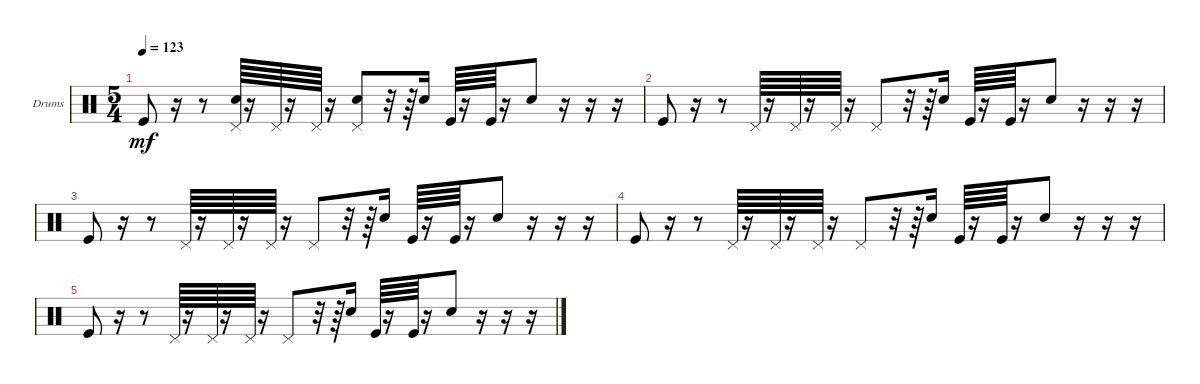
\defaultSystemsLayout 4
\bracketExtendMode groupsimilarinstruments
\firstSystemTrackNameOrientation horizontal
\otherSystemsTrackNameOrientation horizontal
\track ("Drumkit" "Drums") {instrument percussion}
\staff {score}
\articulation defaults
\ts (5 4)
\tempo 123
\clef neutral
\ks c "Kick (hit)".8{dy mf}
r.16 r.8 ("Pedal Hi-Hat (hit)" "Snare (hit) 2").64 r.16 "Pedal Hi-Hat (hit)".64 r.16 "Pedal Hi-Hat (hit)".64 r.16 ("Pedal Hi-Hat (hit)" "Snare (hit) 2").8 r.32 r.64 "Snare (hit) 2".16 "Kick (hit)".64 r.16 "Kick (hit)".64 r.16 "Snare (hit) 2".8 r.16 r.16 r.16 |
"Kick (hit)".8 r.16 r.8 "Pedal Hi-Hat (hit)".64 r.16 "Pedal Hi-Hat (hit)".64 r.16 "Pedal Hi-Hat (hit)".64 r.16 "Pedal Hi-Hat (hit)".8 r.32 r.64 "Snare (hit) 2".16 "Kick (hit)".64 r.16 "Kick (hit)".64 r.16 "Snare (hit) 2".8 r.16 r.16 r.16 |
"Kick (hit)".8 r.16 r.8 "Pedal Hi-Hat (hit)".64 r.16 "Pedal Hi-Hat (hit)".64 r.16 "Pedal Hi-Hat (hit)".64 r.16 "Pedal Hi-Hat (hit)".8 r.32 r.64 "Snare (hit) 2".16 "Kick (hit)".64 r.16 "Kick (hit)".64 r.16 "Snare (hit) 2".8 r.16 r.16 r.16 |
"Kick (hit)".8 r.16 r.8 "Pedal Hi-Hat (hit)".64 r.16 "Pedal Hi-Hat (hit)".64 r.16 "Pedal Hi-Hat (hit)".64 r.16 "Pedal Hi-Hat (hit)".8 r.32 r.64 "Snare (hit) 2".16 "Kick (hit)".64 r.16 "Kick (hit)".64 r.16 "Snare (hit) 2".8 r.16 r.16 r.16 |
"Kick (hit)".8 r.16 r.8 "Pedal Hi-Hat (hit)".64 r.16 "Pedal Hi-Hat (hit)".64 r.16 "Pedal Hi-Hat (hit)".64 r.16 "Pedal Hi-Hat (hit)".8 r.32 r.64 "Snare (hit) 2".16 "Kick (hit)".64 r.16 "Kick (hit)".64 r.16 "Snare (hit) 2".8 r.16 r.16 r.16
